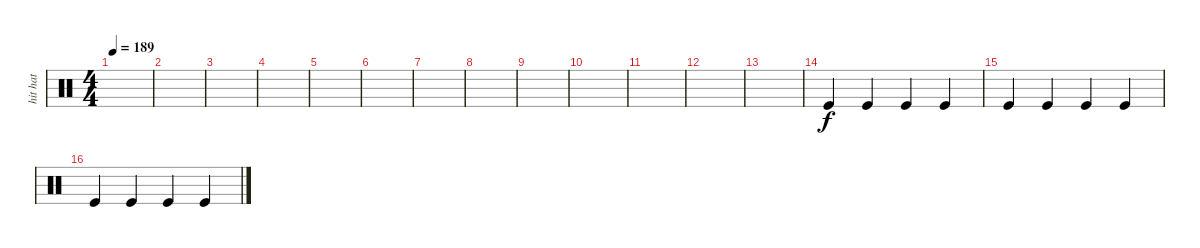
\track ("hit hat" "hit hat") {instrument percussion}
\staff {score}
\articulation defaults
\ts (4 4)
\tempo 189
\clef neutral
\ks c
|
|
|
|
|
|
|
|
|
|
|
|
|
"Kick (hit)".4 "Kick (hit)".4 "Kick (hit)".4 "Kick (hit)".4 |
"Kick (hit)".4 "Kick (hit)".4 "Kick (hit)".4 "Kick (hit)".4 |
"Kick (hit)".4 "Kick (hit)".4 "Kick (hit)".4 "Kick (hit)".4
